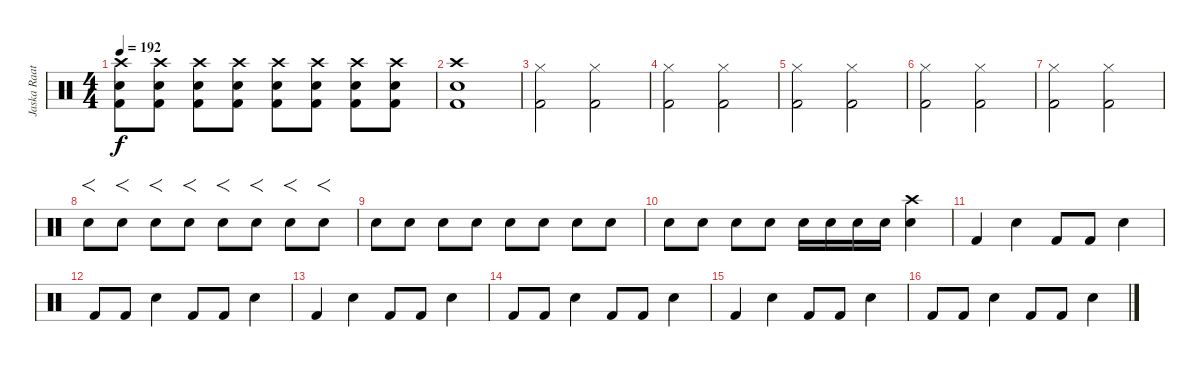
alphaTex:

\track ("Jaska Raatikainen" "Jaska Raat") {instrument percussion}
\staff {score}
\articulation defaults
\ts (4 4)
\tempo 192
\clef neutral
\ks c
("Crash high (hit)" "Snare (hit) 2" "Kick (hit) 2").8{dy f} ("Crash high (hit)" "Snare (hit) 2" "Kick (hit) 2").8 ("Crash high (hit)" "Snare (hit) 2" "Kick (hit) 2").8 ("Crash high (hit)" "Snare (hit) 2" "Kick (hit) 2").8 ("Crash high (hit)" "Snare (hit) 2" "Kick (hit) 2").8 ("Crash high (hit)" "Snare (hit) 2" "Kick (hit) 2").8 ("Crash high (hit)" "Snare (hit) 2" "Kick (hit) 2").8 ("Crash high (hit)" "Snare (hit) 2" "Kick (hit) 2").8 |
("Crash high (hit)" "Snare (hit) 2" "Kick (hit) 2").1 |
("Hi-Hat (closed)" "Kick (hit) 2").2 ("Hi-Hat (closed)" "Kick (hit) 2").2 |
("Hi-Hat (closed)" "Kick (hit) 2").2 ("Hi-Hat (closed)" "Kick (hit) 2").2 |
("Hi-Hat (closed)" "Kick (hit) 2").2 ("Hi-Hat (closed)" "Kick (hit) 2").2 |
("Hi-Hat (closed)" "Kick (hit) 2").2 ("Hi-Hat (closed)" "Kick (hit) 2").2 |
("Hi-Hat (closed)" "Kick (hit) 2").2 ("Hi-Hat (closed)" "Kick (hit) 2").2 |
"Snare (hit) 2".8{f} "Snare (hit) 2".8{f} "Snare (hit) 2".8{f} "Snare (hit) 2".8{f} "Snare (hit) 2".8{f} "Snare (hit) 2".8{f} "Snare (hit) 2".8{f} "Snare (hit) 2".8{f} |
"Snare (hit) 2".8 "Snare (hit) 2".8 "Snare (hit) 2".8 "Snare (hit) 2".8 "Snare (hit) 2".8 "Snare (hit) 2".8 "Snare (hit) 2".8 "Snare (hit) 2".8 |
"Snare (hit) 2".8 "Snare (hit) 2".8 "Snare (hit) 2".8 "Snare (hit) 2".8 "Snare (hit) 2".16 "Snare (hit) 2".16 "Snare (hit) 2".16 "Snare (hit) 2".16 ("Crash high (hit)" "Snare (hit) 2").4 |
"Kick (hit) 2".4 "Snare (hit) 2".4 "Kick (hit) 2".8 "Kick (hit) 2".8 "Snare (hit) 2".4 |
"Kick (hit) 2".8 "Kick (hit) 2".8 "Snare (hit) 2".4 "Kick (hit) 2".8 "Kick (hit) 2".8 "Snare (hit) 2".4 |
"Kick (hit) 2".4 "Snare (hit) 2".4 "Kick (hit) 2".8 "Kick (hit) 2".8 "Snare (hit) 2".4 |
"Kick (hit) 2".8 "Kick (hit) 2".8 "Snare (hit) 2".4 "Kick (hit) 2".8 "Kick (hit) 2".8 "Snare (hit) 2".4 |
"Kick (hit) 2".4 "Snare (hit) 2".4 "Kick (hit) 2".8 "Kick (hit) 2".8 "Snare (hit) 2".4 |
"Kick (hit) 2".8 "Kick (hit) 2".8 "Snare (hit) 2".4 "Kick (hit) 2".8 "Kick (hit) 2".8 "Snare (hit) 2".4
